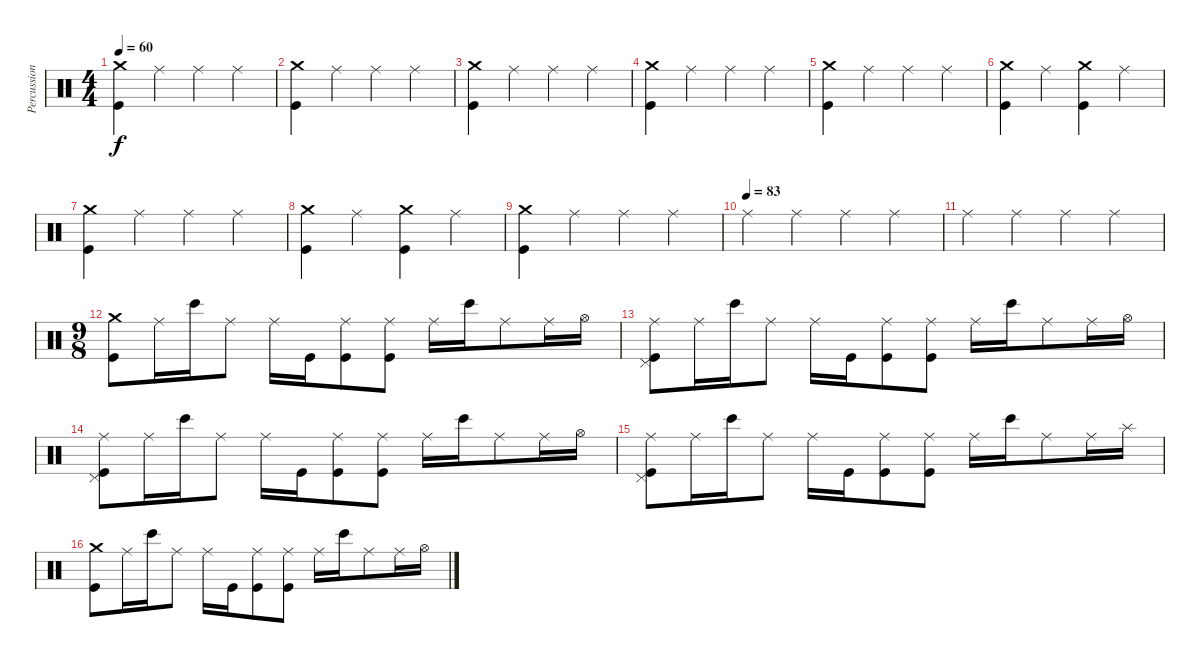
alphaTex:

\track ("Percussions" "Percussion") {instrument percussion}
\staff {score}
\articulation defaults
\ts (4 4)
\tempo 60
\clef neutral
\ks c
("Crash medium (hit)" "Kick (hit)").4{dy f} "Ride (middle)".4 "Ride (middle)".4 "Ride (middle)".4 |
("Crash medium (hit)" "Kick (hit)").4 "Ride (middle)".4 "Ride (middle)".4 "Ride (middle)".4 |
("Crash medium (hit)" "Kick (hit)").4 "Ride (middle)".4 "Ride (middle)".4 "Ride (middle)".4 |
("Crash medium (hit)" "Kick (hit)").4 "Ride (middle)".4 "Ride (middle)".4 "Ride (middle)".4 |
("Crash medium (hit)" "Kick (hit)").4 "Ride (middle)".4 "Ride (middle)".4 "Ride (middle)".4 |
("Crash medium (hit)" "Kick (hit)").4 "Ride (middle)".4 ("Crash medium (hit)" "Kick (hit)").4 "Ride (middle)".4 |
("Crash medium (hit)" "Kick (hit)").4 "Ride (middle)".4 "Ride (middle)".4 "Ride (middle)".4 |
("Crash medium (hit)" "Kick (hit)").4 "Ride (middle)".4 ("Crash medium (hit)" "Kick (hit)").4 "Ride (middle)".4 |
("Crash medium (hit)" "Kick (hit)").4 "Ride (middle)".4 "Ride (middle)".4 "Ride (middle)".4 |
\tempo (83)
"Ride (middle)".4 "Ride (middle)".4 "Ride (middle)".4 "Ride (middle)".4 |
"Ride (middle)".4 "Ride (middle)".4 "Ride (middle)".4 "Ride (middle)".4 |
\ts (9 8)
("Crash medium (hit)" "Kick (hit)").8 "Ride (middle)".16 "Bongo High (hit)".16 "Ride (middle)".8 "Ride (middle)".16 "Kick (hit)".16 ("Ride (middle)" "Kick (hit)").8 ("Ride (middle)" "Kick (hit)").8 "Ride (middle)".16 "Bongo High (hit)".16 "Ride (middle)".8 "Ride (middle)".16 "Hi-Hat (open)".16 |
("Ride (middle)" "Pedal Hi-Hat (hit)" "Kick (hit)").8 "Ride (middle)".16 "Bongo High (hit)".16 "Ride (middle)".8 "Ride (middle)".16 "Kick (hit)".16 ("Ride (middle)" "Kick (hit)").8 ("Ride (middle)" "Kick (hit)").8 "Ride (middle)".16 "Bongo High (hit)".16 "Ride (middle)".8 "Ride (middle)".16 "Hi-Hat (open)".16 |
("Ride (middle)" "Pedal Hi-Hat (hit)" "Kick (hit)").8 "Ride (middle)".16 "Bongo High (hit)".16 "Ride (middle)".8 "Ride (middle)".16 "Kick (hit)".16 ("Ride (middle)" "Kick (hit)").8 ("Ride (middle)" "Kick (hit)").8 "Ride (middle)".16 "Bongo High (hit)".16 "Ride (middle)".8 "Ride (middle)".16 "Hi-Hat (open)".16 |
("Ride (middle)" "Pedal Hi-Hat (hit)" "Kick (hit)").8 "Ride (middle)".16 "Bongo High (hit)".16 "Ride (middle)".8 "Ride (middle)".16 "Kick (hit)".16 ("Ride (middle)" "Kick (hit)").8 ("Ride (middle)" "Kick (hit)").8 "Ride (middle)".16 "Bongo High (hit)".16 "Ride (middle)".8 "Ride (middle)".16 "Splash (hit)".16 |
("Crash medium (hit)" "Kick (hit)").8 "Ride (middle)".16 "Bongo High (hit)".16 "Ride (middle)".8 "Ride (middle)".16 "Kick (hit)".16 ("Ride (middle)" "Kick (hit)").8 ("Ride (middle)" "Kick (hit)").8 "Ride (middle)".16 "Bongo High (hit)".16 "Ride (middle)".8 "Ride (middle)".16 "Hi-Hat (open)".16
